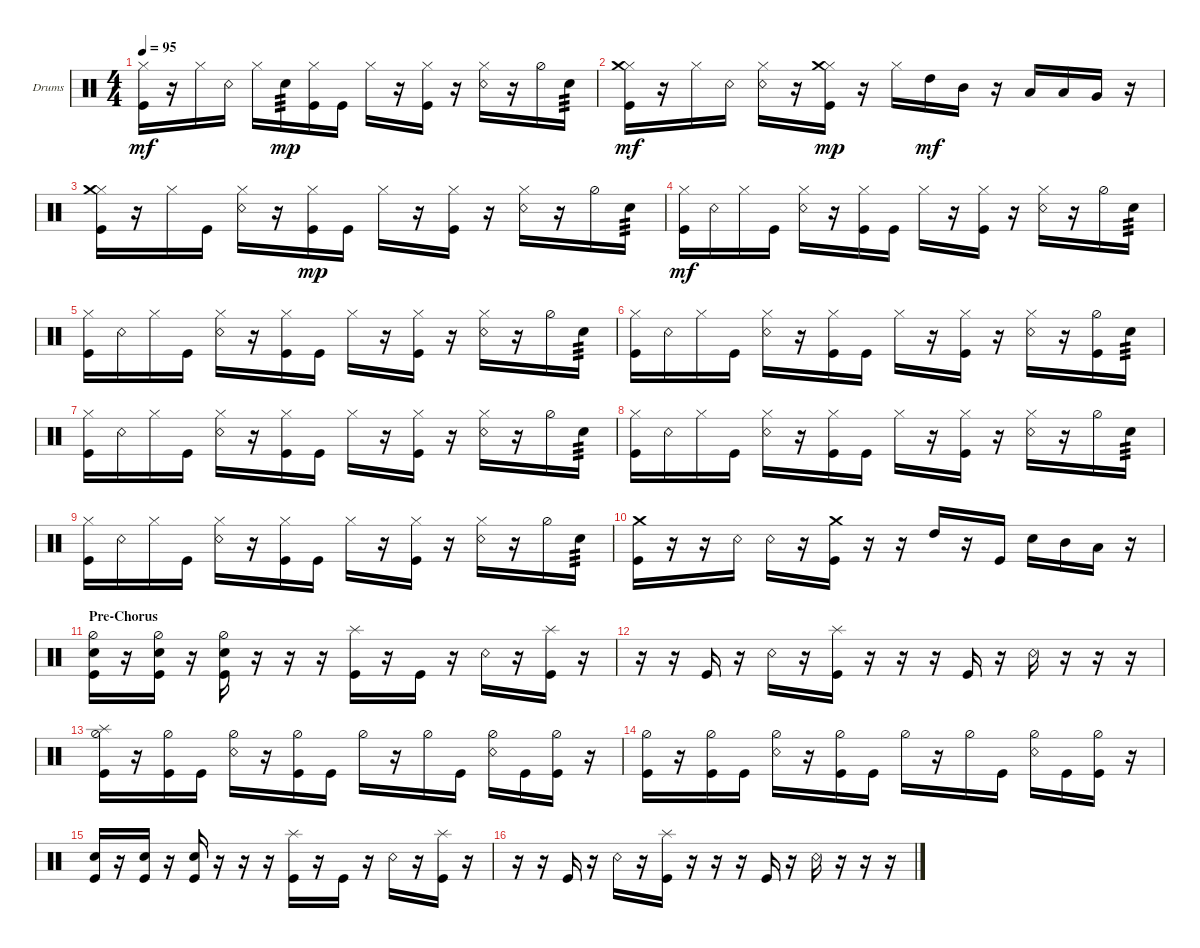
\defaultSystemsLayout 4
\bracketExtendMode groupsimilarinstruments
\firstSystemTrackNameOrientation horizontal
\otherSystemsTrackNameOrientation horizontal
\track ("Drum [Tomoya]" "Drums") {instrument percussion}
\staff {score}
\articulation defaults
\ts (4 4)
\tempo 95
\clef neutral
\ks c
("Kick (hit)" "Hi-Hat (closed)").16{dy mf} r.16 "Hi-Hat (closed)".16 "Snare (rim shot)".16 "Hi-Hat (closed)".16 "Snare (hit) 2".16{tp 3 dy mp} ("Hi-Hat (closed)" "Kick (hit)").16 "Kick (hit)".16 "Hi-Hat (closed)".16 r.16 ("Kick (hit)" "Hi-Hat (closed)").16 r.16 ("Snare (rim shot)" "Hi-Hat (closed)").16 r.16 "Hi-Hat (half)".16 "Snare (hit) 2".16{tp 3} |
("Kick (hit)" "Hi-Hat (closed)" "Crash medium (hit)").16{dy mf} r.16 "Hi-Hat (closed)".16 "Snare (rim shot)".16 ("Hi-Hat (closed)" "Snare (rim shot)").16 r.16 ("Hi-Hat (closed)" "Kick (hit)" "Crash medium (hit)").16{dy mp} r.16 "Hi-Hat (closed)".16 "High Tom (hit)".16{dy mf} "Mid Tom (hit)".16 r.16 "Low Tom (hit)".16 "Low Tom (hit)".16 "Very Low Tom (hit)".16 r.16 |
("Kick (hit)" "Hi-Hat (closed)" "Crash medium (hit)").16 r.16 "Hi-Hat (closed)".16 "Kick (hit)".16 ("Hi-Hat (closed)" "Snare (rim shot)").16 r.16 ("Hi-Hat (closed)" "Kick (hit)").16{dy mp} "Kick (hit)".16 "Hi-Hat (closed)".16 r.16 ("Kick (hit)" "Hi-Hat (closed)").16 r.16 ("Snare (rim shot)" "Hi-Hat (closed)").16 r.16 "Hi-Hat (half)".16 "Snare (hit) 2".16{tp 3} |
("Kick (hit)" "Hi-Hat (closed)").16{dy mf} "Snare (rim shot)".16 "Hi-Hat (closed)".16 "Kick (hit)".16 ("Hi-Hat (closed)" "Snare (rim shot)").16 r.16 ("Hi-Hat (closed)" "Kick (hit)").16 "Kick (hit)".16 "Hi-Hat (closed)".16 r.16 ("Kick (hit)" "Hi-Hat (closed)").16 r.16 ("Snare (rim shot)" "Hi-Hat (closed)").16 r.16 "Hi-Hat (half)".16 "Snare (hit) 2".16{tp 3} |
("Kick (hit)" "Hi-Hat (closed)").16 "Snare (rim shot)".16 "Hi-Hat (closed)".16 "Kick (hit)".16 ("Hi-Hat (closed)" "Snare (rim shot)").16 r.16 ("Hi-Hat (closed)" "Kick (hit)").16 "Kick (hit)".16 "Hi-Hat (closed)".16 r.16 ("Kick (hit)" "Hi-Hat (closed)").16 r.16 ("Snare (rim shot)" "Hi-Hat (closed)").16 r.16 "Hi-Hat (half)".16 "Snare (hit) 2".16{tp 3} |
("Kick (hit)" "Hi-Hat (closed)").16 "Snare (rim shot)".16 "Hi-Hat (closed)".16 "Kick (hit)".16 ("Hi-Hat (closed)" "Snare (rim shot)").16 r.16 ("Hi-Hat (closed)" "Kick (hit)").16 "Kick (hit)".16 "Hi-Hat (closed)".16 r.16 ("Kick (hit)" "Hi-Hat (closed)").16 r.16 ("Snare (rim shot)" "Hi-Hat (closed)").16 r.16 ("Hi-Hat (half)" "Kick (hit)").16 "Snare (hit) 2".16{tp 3} |
("Kick (hit)" "Hi-Hat (closed)").16 "Snare (rim shot)".16 "Hi-Hat (closed)".16 "Kick (hit)".16 ("Hi-Hat (closed)" "Snare (rim shot)").16 r.16 ("Hi-Hat (closed)" "Kick (hit)").16 "Kick (hit)".16 "Hi-Hat (closed)".16 r.16 ("Kick (hit)" "Hi-Hat (closed)").16 r.16 ("Snare (rim shot)" "Hi-Hat (closed)").16 r.16 "Hi-Hat (half)".16 "Snare (hit) 2".16{tp 3} |
("Kick (hit)" "Hi-Hat (closed)").16 "Snare (rim shot)".16 "Hi-Hat (closed)".16 "Kick (hit)".16 ("Hi-Hat (closed)" "Snare (rim shot)").16 r.16 ("Hi-Hat (closed)" "Kick (hit)").16 "Kick (hit)".16 "Hi-Hat (closed)".16 r.16 ("Kick (hit)" "Hi-Hat (closed)").16 r.16 ("Snare (rim shot)" "Hi-Hat (closed)").16 r.16 "Hi-Hat (half)".16 "Snare (hit) 2".16{tp 3} |
("Kick (hit)" "Hi-Hat (closed)").16 "Snare (rim shot)".16 "Hi-Hat (closed)".16 "Kick (hit)".16 ("Hi-Hat (closed)" "Snare (rim shot)").16 r.16 ("Hi-Hat (closed)" "Kick (hit)").16 "Kick (hit)".16 "Hi-Hat (closed)".16 r.16 ("Kick (hit)" "Hi-Hat (closed)").16 r.16 ("Snare (rim shot)" "Hi-Hat (closed)").16 r.16 "Hi-Hat (half)".16 "Snare (hit) 2".16{tp 3} |
("Kick (hit)" "Crash medium (hit)").16 r.16 r.16 "Snare (rim shot)".16 "Snare (rim shot)".16 r.16 ("Kick (hit)" "Crash medium (hit)").16 r.16 r.16 "High Tom (hit)".16 r.16 "Kick (hit)".16 "Snare (hit) 2".16 "Mid Tom (hit)".16 "Low Tom (hit)".16 r.16 |
\section ("" "Pre-Chorus")
("Snare (hit) 2" "Kick (hit)" "Hi-Hat (half)").16 r.16 ("Snare (hit) 2" "Kick (hit)" "Hi-Hat (half)").16 r.16 ("Snare (hit) 2" "Kick (hit)" "Hi-Hat (half)").16 r.16 r.16 r.16 ("Kick (hit)" "Splash (hit)").16 r.16 "Kick (hit)".16 r.16 "Snare (rim shot)".16 r.16 ("Kick (hit)" "Splash (hit)").16 r.16 |
r.16 r.16 "Kick (hit)".16 r.16 "Snare (rim shot)".16 r.16 ("Kick (hit)" "Splash (hit)").16 r.16 r.16 r.16 "Kick (hit)".16 r.16 "Snare (rim shot)".16 r.16 r.16 r.16 |
("Kick (hit)" "Hi-Hat (half)" "Splash (hit)").16 r.16 ("Kick (hit)" "Hi-Hat (half)").16 "Kick (hit)".16 ("Snare (rim shot)" "Hi-Hat (half)").16 r.16 ("Kick (hit)" "Hi-Hat (half)").16 "Kick (hit)".16 "Hi-Hat (half)".16 r.16 "Hi-Hat (half)".16 "Kick (hit)".16 ("Snare (rim shot)" "Hi-Hat (half)").16 "Kick (hit)".16 ("Kick (hit)" "Hi-Hat (half)").16 r.16 |
("Kick (hit)" "Hi-Hat (half)").16 r.16 ("Kick (hit)" "Hi-Hat (half)").16 "Kick (hit)".16 ("Snare (rim shot)" "Hi-Hat (half)").16 r.16 ("Kick (hit)" "Hi-Hat (half)").16 "Kick (hit)".16 "Hi-Hat (half)".16 r.16 "Hi-Hat (half)".16 "Kick (hit)".16 ("Snare (rim shot)" "Hi-Hat (half)").16 "Kick (hit)".16 ("Kick (hit)" "Hi-Hat (half)").16 r.16 |
("Snare (hit) 2" "Kick (hit)").16 r.16 ("Snare (hit) 2" "Kick (hit)").16 r.16 ("Snare (hit) 2" "Kick (hit)").16 r.16 r.16 r.16 ("Kick (hit)" "Splash (hit)").16 r.16 "Kick (hit)".16 r.16 "Snare (rim shot)".16 r.16 ("Kick (hit)" "Splash (hit)").16 r.16 |
r.16 r.16 "Kick (hit)".16 r.16 "Snare (rim shot)".16 r.16 ("Kick (hit)" "Splash (hit)").16 r.16 r.16 r.16 "Kick (hit)".16 r.16 "Snare (rim shot)".16 r.16 r.16 r.16
